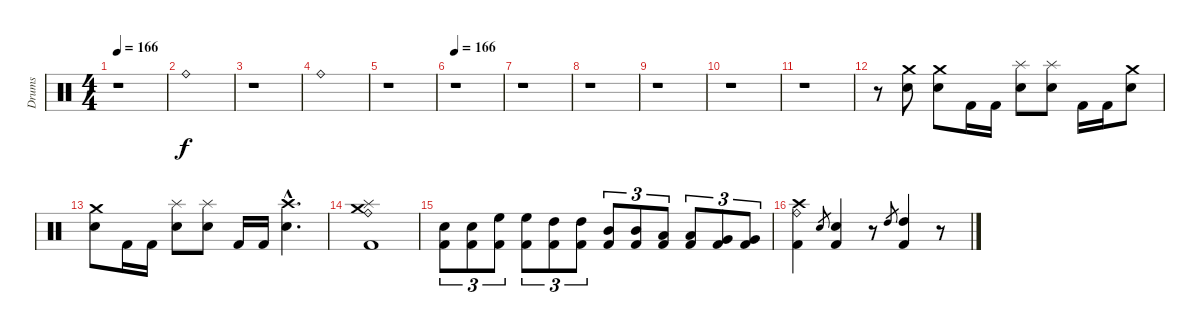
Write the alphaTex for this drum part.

\track ("Drums" "Drums") {instrument percussion}
\staff {score}
\articulation defaults
\ts (4 4)
\tempo 166
\clef neutral
\ks c
r.1{dy f} |
"Ride (bell)".1 |
r.1 |
"Ride (bell)".1 |
r.1 |
\section ("" "")
\tempo 166
r.1 |
r.1 |
r.1 |
r.1 |
r.1 |
r.1 |
r.8 ("Electric Snare (hit)" "Crash medium (hit)").8 ("Electric Snare (hit)" "Crash medium (hit)").8 "Kick (hit) 2".16 "Kick (hit) 2".16 ("Electric Snare (hit)" "Splash (hit)").8 ("Electric Snare (hit)" "Splash (hit)").8 "Kick (hit) 2".16 "Kick (hit) 2".16 ("Electric Snare (hit)" "Crash medium (hit)").8 |
("Electric Snare (hit)" "Crash medium (hit)").8 "Kick (hit) 2".16 "Kick (hit) 2".16 ("Electric Snare (hit)" "Splash (hit)").8 ("Electric Snare (hit)" "Splash (hit)").8 "Kick (hit) 2".16 "Kick (hit) 2".16 ("Electric Snare (hit)"{hac} "Crash high (hit)"{hac}).4{d} |
\section ("" "")
("Kick (hit) 2" "Splash (hit)" "Crash medium (hit)" "Ride (bell)").1 |
("Kick (hit) 2" "Electric Snare (hit)").8{tu (3 2)} ("Kick (hit) 2" "Electric Snare (hit)").8{tu (3 2)} ("Kick (hit) 2" "High Floor Tom (hit)").8{tu (3 2)} ("Kick (hit) 2" "High Floor Tom (hit)").8{tu (3 2)} ("Kick (hit) 2" "High Tom (hit)").8{tu (3 2)} ("Kick (hit) 2" "High Tom (hit)").8{tu (3 2)} ("Kick (hit) 2" "Mid Tom (hit)").8{tu (3 2)} ("Kick (hit) 2" "Mid Tom (hit)").8{tu (3 2)} ("Kick (hit) 2" "Low Tom (hit)").8{tu (3 2)} ("Kick (hit) 2" "Low Tom (hit)").8{tu (3 2)} ("Kick (hit) 2" "Very Low Tom (hit)").8{tu (3 2)} ("Kick (hit) 2" "Very Low Tom (hit)").8{tu (3 2)} |
("Kick (hit) 2" "Crash high (hit)" "Ride (bell)").4 "Electric Snare (hit)".8{gr} ("Kick (hit) 2" "Electric Snare (hit)").4 r.8 "High Tom (hit)".8{gr} ("Kick (hit) 2" "High Tom (hit)").4 r.8
